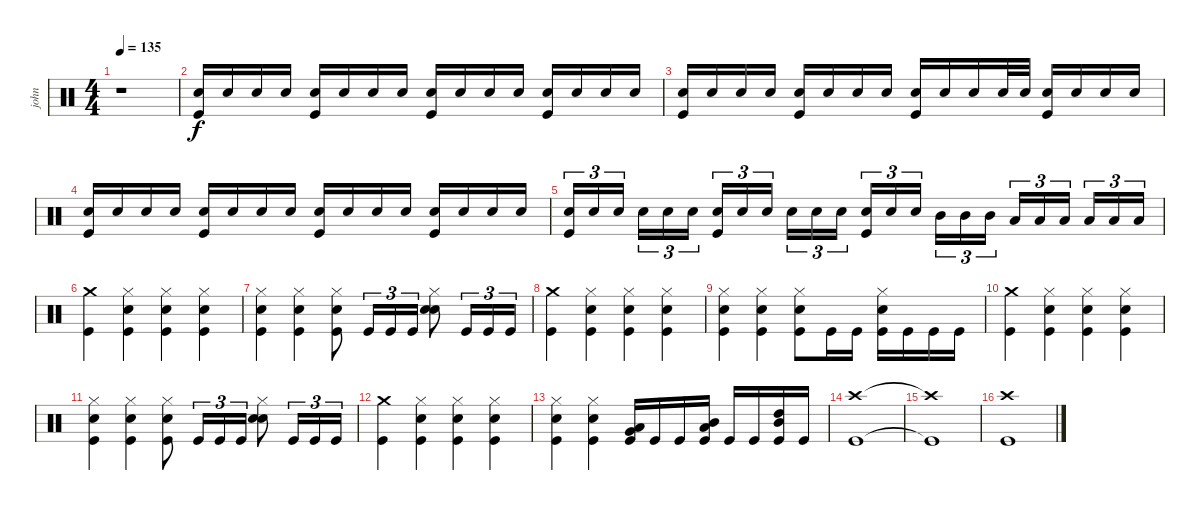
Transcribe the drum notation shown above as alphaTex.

\track ("john" "john") {instrument percussion}
\staff {score}
\articulation defaults
\ts (4 4)
\tempo 135
\clef neutral
\ks c
r.1{dy f} |
("Snare (hit) 2" "Kick (hit)").16 "Snare (hit) 2".16 "Snare (hit) 2".16 "Snare (hit) 2".16 ("Snare (hit) 2" "Kick (hit)").16 "Snare (hit) 2".16 "Snare (hit) 2".16 "Snare (hit) 2".16 ("Snare (hit) 2" "Kick (hit)").16 "Snare (hit) 2".16 "Snare (hit) 2".16 "Snare (hit) 2".16 ("Snare (hit) 2" "Kick (hit)").16 "Snare (hit) 2".16 "Snare (hit) 2".16 "Snare (hit) 2".16 |
("Snare (hit) 2" "Kick (hit)").16 "Snare (hit) 2".16 "Snare (hit) 2".16 "Snare (hit) 2".16 ("Snare (hit) 2" "Kick (hit)").16 "Snare (hit) 2".16 "Snare (hit) 2".16 "Snare (hit) 2".16 ("Snare (hit) 2" "Kick (hit)").16 "Snare (hit) 2".16 "Snare (hit) 2".16 "Snare (hit) 2".32 "Snare (hit) 2".32 ("Snare (hit) 2" "Kick (hit)").16 "Snare (hit) 2".16 "Snare (hit) 2".16 "Snare (hit) 2".16 |
("Snare (hit) 2" "Kick (hit)").16 "Snare (hit) 2".16 "Snare (hit) 2".16 "Snare (hit) 2".16 ("Snare (hit) 2" "Kick (hit)").16 "Snare (hit) 2".16 "Snare (hit) 2".16 "Snare (hit) 2".16 ("Snare (hit) 2" "Kick (hit)").16 "Snare (hit) 2".16 "Snare (hit) 2".16 "Snare (hit) 2".16 ("Snare (hit) 2" "Kick (hit)").16 "Snare (hit) 2".16 "Snare (hit) 2".16 "Snare (hit) 2".16 |
("Snare (hit) 2" "Kick (hit)").16{tu (3 2)} "Snare (hit) 2".16{tu (3 2)} "Snare (hit) 2".16{tu (3 2)} "Snare (hit) 2".16{tu (3 2)} "Snare (hit) 2".16{tu (3 2)} "Snare (hit) 2".16{tu (3 2)} ("Snare (hit) 2" "Kick (hit)").16{tu (3 2)} "Snare (hit) 2".16{tu (3 2)} "Snare (hit) 2".16{tu (3 2)} "Snare (hit) 2".16{tu (3 2)} "Snare (hit) 2".16{tu (3 2)} "Snare (hit) 2".16{tu (3 2)} ("Snare (hit) 2" "Kick (hit)").16{tu (3 2)} "Snare (hit) 2".16{tu (3 2)} "Snare (hit) 2".16{tu (3 2)} "Mid Tom (hit)".16{tu (3 2)} "Mid Tom (hit)".16{tu (3 2)} "Mid Tom (hit)".16{tu (3 2)} "Low Tom (hit)".16{tu (3 2)} "Low Tom (hit)".16{tu (3 2)} "Low Tom (hit)".16{tu (3 2)} "Low Floor Tom (hit)".16{tu (3 2)} "Low Floor Tom (hit)".16{tu (3 2)} "Low Floor Tom (hit)".16{tu (3 2)} |
("Kick (hit)" "Crash medium (hit)").4 ("Kick (hit)" "Snare (hit) 2" "Hi-Hat (closed)").4 ("Kick (hit)" "Snare (hit) 2" "Hi-Hat (closed)").4 ("Kick (hit)" "Snare (hit) 2" "Hi-Hat (closed)").4 |
("Kick (hit)" "Snare (hit) 2" "Hi-Hat (closed)").4 ("Kick (hit)" "Snare (hit) 2" "Hi-Hat (closed)").4 ("Kick (hit)" "Snare (hit) 2" "Hi-Hat (closed)").8 "Kick (hit)".16{tu (3 2)} "Kick (hit)".16{tu (3 2)} "Kick (hit)".16{tu (3 2)} ("Snare (hit) 2" "Snare (hit) 2" "Hi-Hat (closed)").8 "Kick (hit)".16{tu (3 2)} "Kick (hit)".16{tu (3 2)} "Kick (hit)".16{tu (3 2)} |
("Kick (hit)" "Crash medium (hit)").4 ("Kick (hit)" "Snare (hit) 2" "Hi-Hat (closed)").4 ("Kick (hit)" "Snare (hit) 2" "Hi-Hat (closed)").4 ("Kick (hit)" "Snare (hit) 2" "Hi-Hat (closed)").4 |
("Kick (hit)" "Snare (hit) 2" "Hi-Hat (closed)").4 ("Kick (hit)" "Snare (hit) 2" "Hi-Hat (closed)").4 ("Kick (hit)" "Snare (hit) 2" "Hi-Hat (closed)").8 "Kick (hit)".16 "Kick (hit)".16 ("Kick (hit)" "Snare (hit) 2" "Hi-Hat (closed)").16 "Kick (hit)".16 "Kick (hit)".16 "Kick (hit)".16 |
("Kick (hit)" "Crash medium (hit)").4 ("Kick (hit)" "Snare (hit) 2" "Hi-Hat (closed)").4 ("Kick (hit)" "Snare (hit) 2" "Hi-Hat (closed)").4 ("Kick (hit)" "Snare (hit) 2" "Hi-Hat (closed)").4 |
("Kick (hit)" "Snare (hit) 2" "Hi-Hat (closed)").4 ("Kick (hit)" "Snare (hit) 2" "Hi-Hat (closed)").4 ("Kick (hit)" "Snare (hit) 2" "Hi-Hat (closed)").8 "Kick (hit)".16{tu (3 2)} "Kick (hit)".16{tu (3 2)} "Kick (hit)".16{tu (3 2)} ("Snare (hit) 2" "Snare (hit) 2" "Hi-Hat (closed)").8 "Kick (hit)".16{tu (3 2)} "Kick (hit)".16{tu (3 2)} "Kick (hit)".16{tu (3 2)} |
("Kick (hit)" "Crash medium (hit)").4 ("Kick (hit)" "Snare (hit) 2" "Hi-Hat (closed)").4 ("Kick (hit)" "Snare (hit) 2" "Hi-Hat (closed)").4 ("Kick (hit)" "Snare (hit) 2" "Hi-Hat (closed)").4 |
("Kick (hit)" "Snare (hit) 2" "Hi-Hat (closed)").4 ("Kick (hit)" "Snare (hit) 2" "Hi-Hat (closed)").4 ("Kick (hit)" "Very Low Tom (hit)" "Low Floor Tom (hit)").16 "Kick (hit)".16 "Kick (hit)".16 ("Kick (hit)" "Mid Tom (hit)" "Low Tom (hit)").16 "Kick (hit)".16 "Kick (hit)".16 ("Kick (hit)" "Mid Tom (hit)" "High Tom (hit)").16 "Kick (hit)".16 |
("Kick (hit)" "Crash high (hit)").1 |
("Kick (hit)"{t} "Crash high (hit)"{t}).1 |
("Kick (hit)" "Crash high (hit)").1
